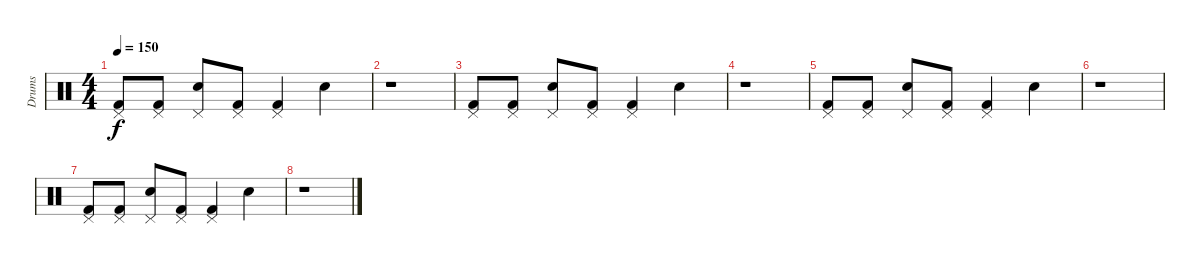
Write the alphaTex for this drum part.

\track ("Drums" "Drums") {instrument percussion}
\staff {score}
\articulation defaults
\ts (4 4)
\tempo 150
\clef neutral
\ks c
("Pedal Hi-Hat (hit)" "Kick (hit) 2").8{dy f} ("Pedal Hi-Hat (hit)" "Kick (hit) 2").8 ("Pedal Hi-Hat (hit)" "Electric Snare (hit)").8 ("Pedal Hi-Hat (hit)" "Kick (hit) 2").8 ("Pedal Hi-Hat (hit)" "Kick (hit) 2").4 "Electric Snare (hit)".4 |
r.1 |
("Pedal Hi-Hat (hit)" "Kick (hit) 2").8 ("Pedal Hi-Hat (hit)" "Kick (hit) 2").8 ("Pedal Hi-Hat (hit)" "Electric Snare (hit)").8 ("Pedal Hi-Hat (hit)" "Kick (hit) 2").8 ("Pedal Hi-Hat (hit)" "Kick (hit) 2").4 "Electric Snare (hit)".4 |
r.1 |
("Pedal Hi-Hat (hit)" "Kick (hit) 2").8 ("Pedal Hi-Hat (hit)" "Kick (hit) 2").8 ("Pedal Hi-Hat (hit)" "Electric Snare (hit)").8 ("Pedal Hi-Hat (hit)" "Kick (hit) 2").8 ("Pedal Hi-Hat (hit)" "Kick (hit) 2").4 "Electric Snare (hit)".4 |
r.1 |
("Pedal Hi-Hat (hit)" "Kick (hit) 2").8 ("Pedal Hi-Hat (hit)" "Kick (hit) 2").8 ("Pedal Hi-Hat (hit)" "Electric Snare (hit)").8 ("Pedal Hi-Hat (hit)" "Kick (hit) 2").8 ("Pedal Hi-Hat (hit)" "Kick (hit) 2").4 "Electric Snare (hit)".4 |
r.1
